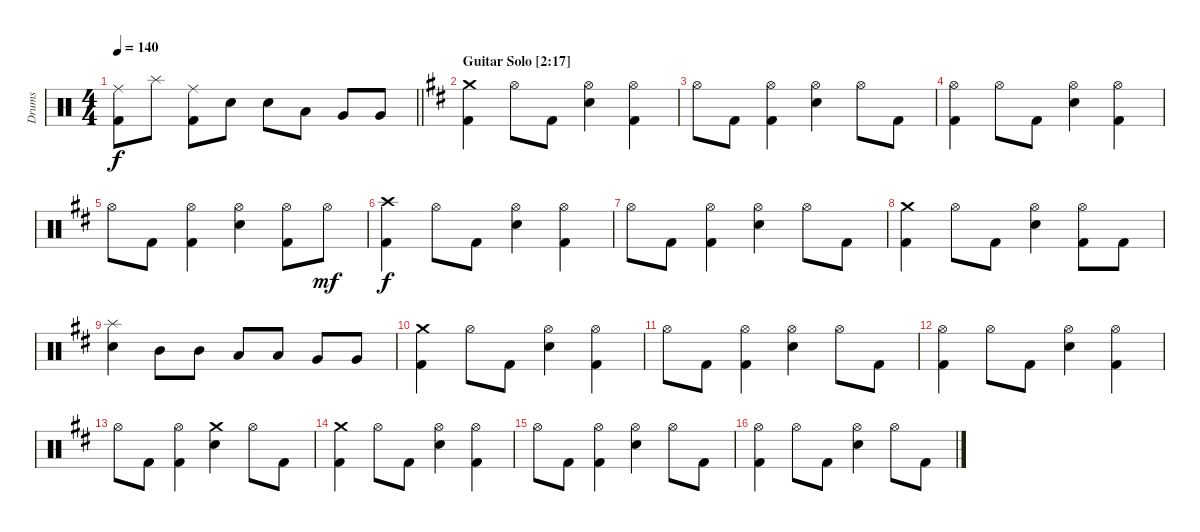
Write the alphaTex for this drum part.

\track ("Drums" "Drums") {instrument percussion}
\staff {score}
\articulation defaults
\ts (4 4)
\tempo 140
\clef neutral
\barLineRight lightlight
\ks aminor
("Ride (middle)" "Kick (hit) 2").8{dy f} "Splash (hit)".8 ("Ride (middle)" "Kick (hit) 2").8 "Snare (hit) 2".8 "Snare (hit) 2".8 "Low Tom (hit)".8 "Very Low Tom (hit)".8 "Very Low Tom (hit)".8 |
\section ("" "Guitar Solo [2:17]")
\ks bminor
("Crash medium (hit)" "Kick (hit) 2").4 "Hi-Hat (open)".8 "Kick (hit) 2".8 ("Hi-Hat (open)" "Snare (hit) 2").4 ("Hi-Hat (open)" "Kick (hit) 2").4 |
"Hi-Hat (open)".8 "Kick (hit) 2".8 ("Hi-Hat (open)" "Kick (hit) 2").4 ("Hi-Hat (open)" "Snare (hit) 2").4 "Hi-Hat (open)".8 "Kick (hit) 2".8 |
("Hi-Hat (open)" "Kick (hit) 2").4 "Hi-Hat (open)".8 "Kick (hit) 2".8 ("Hi-Hat (open)" "Snare (hit) 2").4 ("Hi-Hat (open)" "Kick (hit) 2").4 |
"Hi-Hat (open)".8 "Kick (hit) 2".8 ("Hi-Hat (open)" "Kick (hit) 2").4 ("Hi-Hat (open)" "Snare (hit) 2").4 ("Hi-Hat (open)" "Kick (hit) 2").8 "Hi-Hat (open)".8{dy mf} |
("Crash high (hit)" "Kick (hit) 2").4{dy f} "Hi-Hat (open)".8 "Kick (hit) 2".8 ("Hi-Hat (open)" "Snare (hit) 2").4 ("Hi-Hat (open)" "Kick (hit) 2").4 |
"Hi-Hat (open)".8 "Kick (hit) 2".8 ("Hi-Hat (open)" "Kick (hit) 2").4 ("Hi-Hat (open)" "Snare (hit) 2").4 "Hi-Hat (open)".8 "Kick (hit) 2".8 |
("Crash medium (hit)" "Kick (hit) 2").4 "Hi-Hat (open)".8 "Kick (hit) 2".8 ("Hi-Hat (open)" "Snare (hit) 2").4 ("Hi-Hat (open)" "Kick (hit) 2").8 "Kick (hit) 2".8 |
("Splash (hit)" "Snare (hit) 2").4 "Mid Tom (hit)".8 "Mid Tom (hit)".8 "Low Tom (hit)".8 "Low Tom (hit)".8 "Very Low Tom (hit)".8 "Very Low Tom (hit)".8 |
("Crash medium (hit)" "Kick (hit) 2").4 "Hi-Hat (open)".8 "Kick (hit) 2".8 ("Hi-Hat (open)" "Snare (hit) 2").4 ("Hi-Hat (open)" "Kick (hit) 2").4 |
"Hi-Hat (open)".8 "Kick (hit) 2".8 ("Hi-Hat (open)" "Kick (hit) 2").4 ("Hi-Hat (open)" "Snare (hit) 2").4 "Hi-Hat (open)".8 "Kick (hit) 2".8 |
("Hi-Hat (open)" "Kick (hit) 2").4 "Hi-Hat (open)".8 "Kick (hit) 2".8 ("Hi-Hat (open)" "Snare (hit) 2").4 ("Hi-Hat (open)" "Kick (hit) 2").4 |
"Hi-Hat (open)".8 "Kick (hit) 2".8 ("Hi-Hat (open)" "Kick (hit) 2").4 ("Crash medium (hit)" "Snare (hit) 2").4 "Hi-Hat (open)".8 "Kick (hit) 2".8 |
("Crash medium (hit)" "Kick (hit) 2").4 "Hi-Hat (open)".8 "Kick (hit) 2".8 ("Hi-Hat (open)" "Snare (hit) 2").4 ("Hi-Hat (open)" "Kick (hit) 2").4 |
"Hi-Hat (open)".8 "Kick (hit) 2".8 ("Hi-Hat (open)" "Kick (hit) 2").4 ("Hi-Hat (open)" "Snare (hit) 2").4 "Hi-Hat (open)".8 "Kick (hit) 2".8 |
("Hi-Hat (open)" "Kick (hit) 2").4 "Hi-Hat (open)".8 "Kick (hit) 2".8 ("Hi-Hat (open)" "Snare (hit) 2").4 "Hi-Hat (open)".8 "Kick (hit) 2".8
